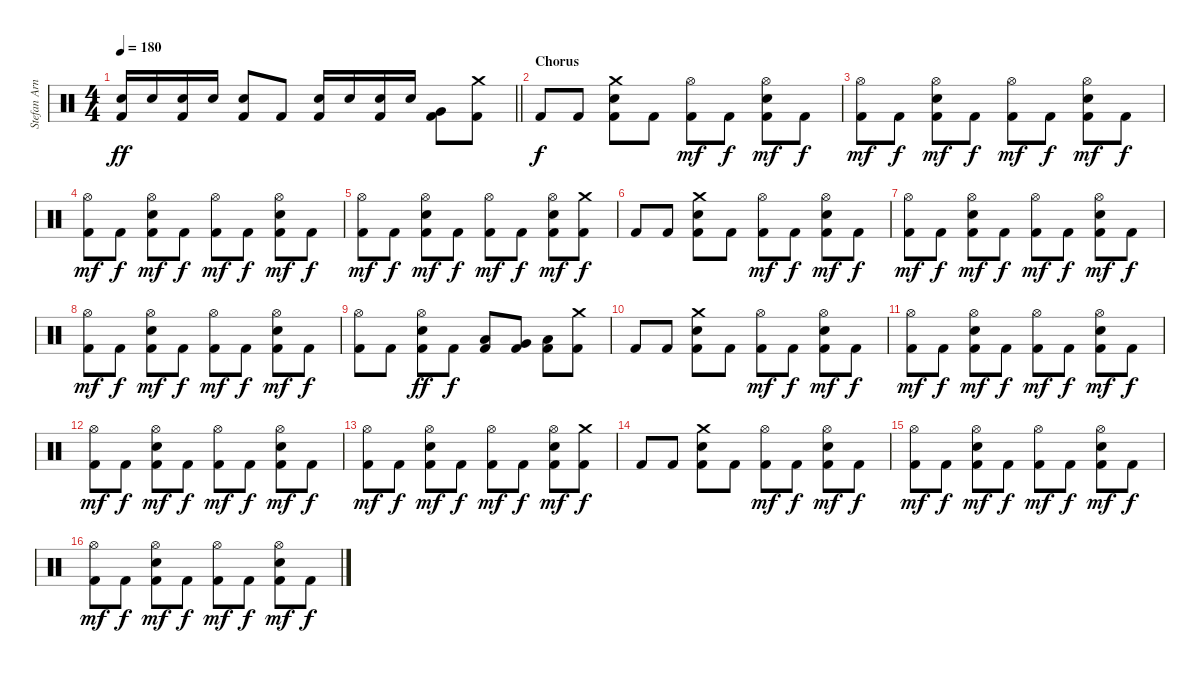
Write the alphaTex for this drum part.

\track ("Stefan Arnold" "Stefan Arn") {instrument percussion}
\staff {score}
\articulation defaults
\ts (4 4)
\tempo 180
\clef neutral
\barLineRight lightlight
\ks c
("Electric Snare (hit)" "Kick (hit) 2").16{dy ff} "Electric Snare (hit)".16 ("Electric Snare (hit)" "Kick (hit) 2").16 "Electric Snare (hit)".16 ("Electric Snare (hit)" "Kick (hit) 2").8 "Kick (hit) 2".8 ("Electric Snare (hit)" "Kick (hit) 2").16 "Electric Snare (hit)".16 ("Electric Snare (hit)" "Kick (hit) 2").16 "Electric Snare (hit)".16 ("Very Low Tom (hit)" "Kick (hit) 2").8 ("Crash medium (hit)" "Kick (hit) 2").8 |
\section ("" "Chorus")
"Kick (hit) 2".8{dy f} "Kick (hit) 2".8 ("Crash medium (hit)" "Electric Snare (hit)" "Kick (hit) 2").8 "Kick (hit) 2".8 ("Hi-Hat (open)" "Kick (hit) 2").8{dy mf} "Kick (hit) 2".8{dy f} ("Hi-Hat (open)" "Electric Snare (hit)" "Kick (hit) 2").8{dy mf} "Kick (hit) 2".8{dy f} |
("Hi-Hat (open)" "Kick (hit) 2").8{dy mf} "Kick (hit) 2".8{dy f} ("Hi-Hat (open)" "Electric Snare (hit)" "Kick (hit) 2").8{dy mf} "Kick (hit) 2".8{dy f} ("Hi-Hat (open)" "Kick (hit) 2").8{dy mf} "Kick (hit) 2".8{dy f} ("Hi-Hat (open)" "Electric Snare (hit)" "Kick (hit) 2").8{dy mf} "Kick (hit) 2".8{dy f} |
("Hi-Hat (open)" "Kick (hit) 2").8{dy mf} "Kick (hit) 2".8{dy f} ("Hi-Hat (open)" "Electric Snare (hit)" "Kick (hit) 2").8{dy mf} "Kick (hit) 2".8{dy f} ("Hi-Hat (open)" "Kick (hit) 2").8{dy mf} "Kick (hit) 2".8{dy f} ("Hi-Hat (open)" "Electric Snare (hit)" "Kick (hit) 2").8{dy mf} "Kick (hit) 2".8{dy f} |
("Hi-Hat (open)" "Kick (hit) 2").8{dy mf} "Kick (hit) 2".8{dy f} ("Hi-Hat (open)" "Electric Snare (hit)" "Kick (hit) 2").8{dy mf} "Kick (hit) 2".8{dy f} ("Hi-Hat (open)" "Kick (hit) 2").8{dy mf} "Kick (hit) 2".8{dy f} ("Hi-Hat (open)" "Electric Snare (hit)" "Kick (hit) 2").8{dy mf} ("Crash medium (hit)" "Kick (hit) 2").8{dy f} |
"Kick (hit) 2".8 "Kick (hit) 2".8 ("Crash medium (hit)" "Electric Snare (hit)" "Kick (hit) 2").8 "Kick (hit) 2".8 ("Hi-Hat (open)" "Kick (hit) 2").8{dy mf} "Kick (hit) 2".8{dy f} ("Hi-Hat (open)" "Electric Snare (hit)" "Kick (hit) 2").8{dy mf} "Kick (hit) 2".8{dy f} |
("Hi-Hat (open)" "Kick (hit) 2").8{dy mf} "Kick (hit) 2".8{dy f} ("Hi-Hat (open)" "Electric Snare (hit)" "Kick (hit) 2").8{dy mf} "Kick (hit) 2".8{dy f} ("Hi-Hat (open)" "Kick (hit) 2").8{dy mf} "Kick (hit) 2".8{dy f} ("Hi-Hat (open)" "Electric Snare (hit)" "Kick (hit) 2").8{dy mf} "Kick (hit) 2".8{dy f} |
("Hi-Hat (open)" "Kick (hit) 2").8{dy mf} "Kick (hit) 2".8{dy f} ("Hi-Hat (open)" "Electric Snare (hit)" "Kick (hit) 2").8{dy mf} "Kick (hit) 2".8{dy f} ("Hi-Hat (open)" "Kick (hit) 2").8{dy mf} "Kick (hit) 2".8{dy f} ("Hi-Hat (open)" "Electric Snare (hit)" "Kick (hit) 2").8{dy mf} "Kick (hit) 2".8{dy f} |
("Hi-Hat (open)" "Kick (hit) 2").8 "Kick (hit) 2".8 ("Hi-Hat (open)" "Electric Snare (hit)" "Kick (hit) 2").8{dy ff} "Kick (hit) 2".8{dy f} ("Low Tom (hit)" "Kick (hit) 2").8 ("Very Low Tom (hit)" "Kick (hit) 2").8 ("Low Floor Tom (hit)" "Kick (hit) 2").8 ("Crash medium (hit)" "Kick (hit) 2").8 |
"Kick (hit) 2".8 "Kick (hit) 2".8 ("Crash medium (hit)" "Electric Snare (hit)" "Kick (hit) 2").8 "Kick (hit) 2".8 ("Hi-Hat (open)" "Kick (hit) 2").8{dy mf} "Kick (hit) 2".8{dy f} ("Hi-Hat (open)" "Electric Snare (hit)" "Kick (hit) 2").8{dy mf} "Kick (hit) 2".8{dy f} |
("Hi-Hat (open)" "Kick (hit) 2").8{dy mf} "Kick (hit) 2".8{dy f} ("Hi-Hat (open)" "Electric Snare (hit)" "Kick (hit) 2").8{dy mf} "Kick (hit) 2".8{dy f} ("Hi-Hat (open)" "Kick (hit) 2").8{dy mf} "Kick (hit) 2".8{dy f} ("Hi-Hat (open)" "Electric Snare (hit)" "Kick (hit) 2").8{dy mf} "Kick (hit) 2".8{dy f} |
("Hi-Hat (open)" "Kick (hit) 2").8{dy mf} "Kick (hit) 2".8{dy f} ("Hi-Hat (open)" "Electric Snare (hit)" "Kick (hit) 2").8{dy mf} "Kick (hit) 2".8{dy f} ("Hi-Hat (open)" "Kick (hit) 2").8{dy mf} "Kick (hit) 2".8{dy f} ("Hi-Hat (open)" "Electric Snare (hit)" "Kick (hit) 2").8{dy mf} "Kick (hit) 2".8{dy f} |
("Hi-Hat (open)" "Kick (hit) 2").8{dy mf} "Kick (hit) 2".8{dy f} ("Hi-Hat (open)" "Electric Snare (hit)" "Kick (hit) 2").8{dy mf} "Kick (hit) 2".8{dy f} ("Hi-Hat (open)" "Kick (hit) 2").8{dy mf} "Kick (hit) 2".8{dy f} ("Hi-Hat (open)" "Electric Snare (hit)" "Kick (hit) 2").8{dy mf} ("Crash medium (hit)" "Kick (hit) 2").8{dy f} |
"Kick (hit) 2".8 "Kick (hit) 2".8 ("Crash medium (hit)" "Electric Snare (hit)" "Kick (hit) 2").8 "Kick (hit) 2".8 ("Hi-Hat (open)" "Kick (hit) 2").8{dy mf} "Kick (hit) 2".8{dy f} ("Hi-Hat (open)" "Electric Snare (hit)" "Kick (hit) 2").8{dy mf} "Kick (hit) 2".8{dy f} |
("Hi-Hat (open)" "Kick (hit) 2").8{dy mf} "Kick (hit) 2".8{dy f} ("Hi-Hat (open)" "Electric Snare (hit)" "Kick (hit) 2").8{dy mf} "Kick (hit) 2".8{dy f} ("Hi-Hat (open)" "Kick (hit) 2").8{dy mf} "Kick (hit) 2".8{dy f} ("Hi-Hat (open)" "Electric Snare (hit)" "Kick (hit) 2").8{dy mf} "Kick (hit) 2".8{dy f} |
("Hi-Hat (open)" "Kick (hit) 2").8{dy mf} "Kick (hit) 2".8{dy f} ("Hi-Hat (open)" "Electric Snare (hit)" "Kick (hit) 2").8{dy mf} "Kick (hit) 2".8{dy f} ("Hi-Hat (open)" "Kick (hit) 2").8{dy mf} "Kick (hit) 2".8{dy f} ("Hi-Hat (open)" "Electric Snare (hit)" "Kick (hit) 2").8{dy mf} "Kick (hit) 2".8{dy f}
